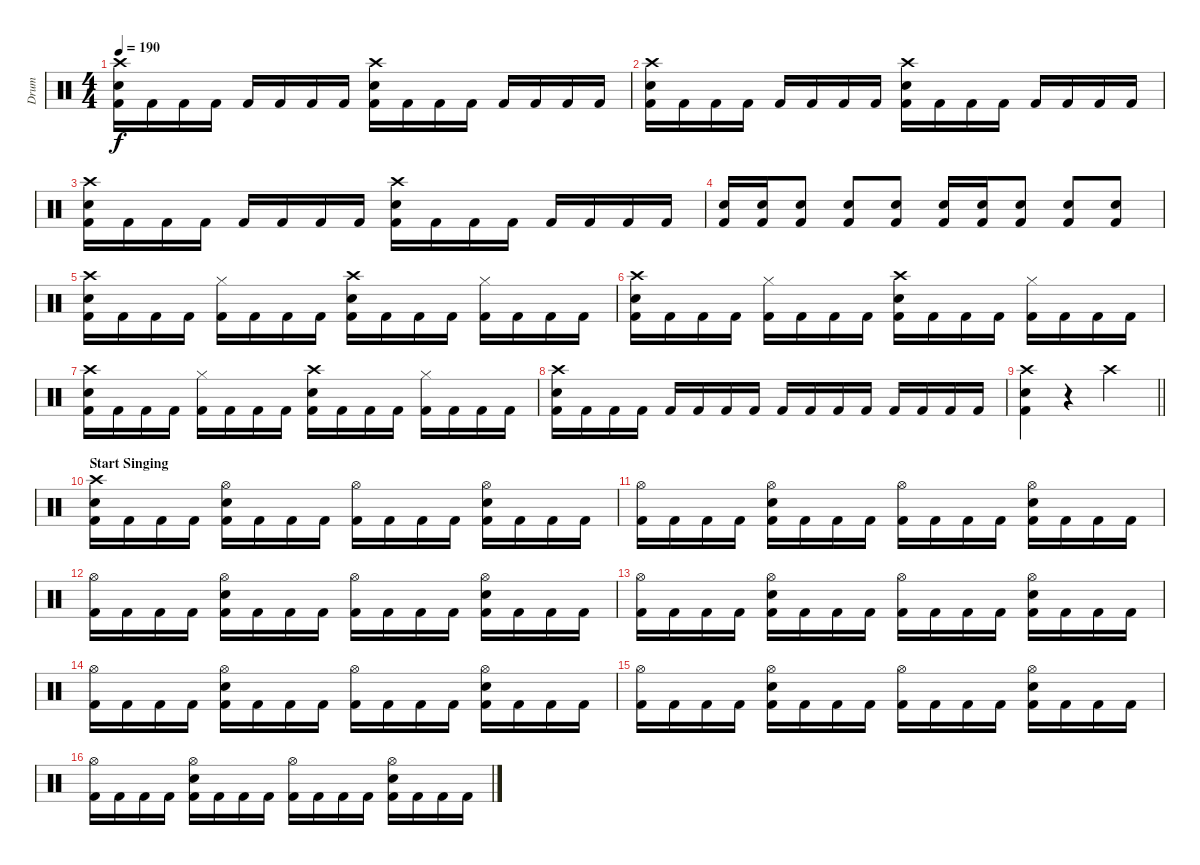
\track ("Drum" "Drum") {instrument percussion}
\staff {score}
\articulation defaults
\ts (4 4)
\tempo 190
\clef neutral
\ks c
("Crash high (hit)" "Snare (hit) 2" "Kick (hit) 2").16{dy f} "Kick (hit) 2".16 "Kick (hit) 2".16 "Kick (hit) 2".16 "Kick (hit) 2".16 "Kick (hit) 2".16 "Kick (hit) 2".16 "Kick (hit) 2".16 ("Crash high (hit)" "Snare (hit) 2" "Kick (hit) 2").16 "Kick (hit) 2".16 "Kick (hit) 2".16 "Kick (hit) 2".16 "Kick (hit) 2".16 "Kick (hit) 2".16 "Kick (hit) 2".16 "Kick (hit) 2".16 |
("Crash high (hit)" "Snare (hit) 2" "Kick (hit) 2").16 "Kick (hit) 2".16 "Kick (hit) 2".16 "Kick (hit) 2".16 "Kick (hit) 2".16 "Kick (hit) 2".16 "Kick (hit) 2".16 "Kick (hit) 2".16 ("Crash high (hit)" "Snare (hit) 2" "Kick (hit) 2").16 "Kick (hit) 2".16 "Kick (hit) 2".16 "Kick (hit) 2".16 "Kick (hit) 2".16 "Kick (hit) 2".16 "Kick (hit) 2".16 "Kick (hit) 2".16 |
("Crash high (hit)" "Snare (hit) 2" "Kick (hit) 2").16 "Kick (hit) 2".16 "Kick (hit) 2".16 "Kick (hit) 2".16 "Kick (hit) 2".16 "Kick (hit) 2".16 "Kick (hit) 2".16 "Kick (hit) 2".16 ("Crash high (hit)" "Snare (hit) 2" "Kick (hit) 2").16 "Kick (hit) 2".16 "Kick (hit) 2".16 "Kick (hit) 2".16 "Kick (hit) 2".16 "Kick (hit) 2".16 "Kick (hit) 2".16 "Kick (hit) 2".16 |
("Snare (hit) 2" "Kick (hit) 2").16 ("Snare (hit) 2" "Kick (hit) 2").16 ("Snare (hit) 2" "Kick (hit) 2").8 ("Snare (hit) 2" "Kick (hit) 2").8 ("Snare (hit) 2" "Kick (hit) 2").8 ("Snare (hit) 2" "Kick (hit) 2").16 ("Snare (hit) 2" "Kick (hit) 2").16 ("Snare (hit) 2" "Kick (hit) 2").8 ("Snare (hit) 2" "Kick (hit) 2").8 ("Snare (hit) 2" "Kick (hit) 2").8 |
("Crash high (hit)" "Snare (hit) 2" "Kick (hit) 2").16 "Kick (hit) 2".16 "Kick (hit) 2".16 "Kick (hit) 2".16 ("Hi-Hat (closed)" "Kick (hit) 2").16 "Kick (hit) 2".16 "Kick (hit) 2".16 "Kick (hit) 2".16 ("Crash high (hit)" "Snare (hit) 2" "Kick (hit) 2").16 "Kick (hit) 2".16 "Kick (hit) 2".16 "Kick (hit) 2".16 ("Hi-Hat (closed)" "Kick (hit) 2").16 "Kick (hit) 2".16 "Kick (hit) 2".16 "Kick (hit) 2".16 |
("Crash high (hit)" "Snare (hit) 2" "Kick (hit) 2").16 "Kick (hit) 2".16 "Kick (hit) 2".16 "Kick (hit) 2".16 ("Hi-Hat (closed)" "Kick (hit) 2").16 "Kick (hit) 2".16 "Kick (hit) 2".16 "Kick (hit) 2".16 ("Crash high (hit)" "Snare (hit) 2" "Kick (hit) 2").16 "Kick (hit) 2".16 "Kick (hit) 2".16 "Kick (hit) 2".16 ("Hi-Hat (closed)" "Kick (hit) 2").16 "Kick (hit) 2".16 "Kick (hit) 2".16 "Kick (hit) 2".16 |
("Crash high (hit)" "Snare (hit) 2" "Kick (hit) 2").16 "Kick (hit) 2".16 "Kick (hit) 2".16 "Kick (hit) 2".16 ("Hi-Hat (closed)" "Kick (hit) 2").16 "Kick (hit) 2".16 "Kick (hit) 2".16 "Kick (hit) 2".16 ("Crash high (hit)" "Snare (hit) 2" "Kick (hit) 2").16 "Kick (hit) 2".16 "Kick (hit) 2".16 "Kick (hit) 2".16 ("Hi-Hat (closed)" "Kick (hit) 2").16 "Kick (hit) 2".16 "Kick (hit) 2".16 "Kick (hit) 2".16 |
("Crash high (hit)" "Snare (hit) 2" "Kick (hit) 2").16 "Kick (hit) 2".16 "Kick (hit) 2".16 "Kick (hit) 2".16 "Kick (hit) 2".16 "Kick (hit) 2".16 "Kick (hit) 2".16 "Kick (hit) 2".16 "Kick (hit) 2".16 "Kick (hit) 2".16 "Kick (hit) 2".16 "Kick (hit) 2".16 "Kick (hit) 2".16 "Kick (hit) 2".16 "Kick (hit) 2".16 "Kick (hit) 2".16 |
\barLineRight lightlight
("Crash high (hit)" "Snare (hit) 2" "Kick (hit) 2").4 r.4{volume 0} "Crash high (hit)".2{volume 13} |
\section ("" "Start Singing")
("Crash high (hit)" "Snare (hit) 2" "Kick (hit) 2").16 "Kick (hit) 2".16 "Kick (hit) 2".16 "Kick (hit) 2".16 ("Hi-Hat (open)" "Snare (hit) 2" "Kick (hit) 2").16 "Kick (hit) 2".16 "Kick (hit) 2".16 "Kick (hit) 2".16 ("Hi-Hat (open)" "Kick (hit) 2").16 "Kick (hit) 2".16 "Kick (hit) 2".16 "Kick (hit) 2".16 ("Hi-Hat (open)" "Snare (hit) 2" "Kick (hit) 2").16 "Kick (hit) 2".16 "Kick (hit) 2".16 "Kick (hit) 2".16 |
("Hi-Hat (open)" "Kick (hit) 2").16 "Kick (hit) 2".16 "Kick (hit) 2".16 "Kick (hit) 2".16 ("Hi-Hat (open)" "Snare (hit) 2" "Kick (hit) 2").16 "Kick (hit) 2".16 "Kick (hit) 2".16 "Kick (hit) 2".16 ("Hi-Hat (open)" "Kick (hit) 2").16 "Kick (hit) 2".16 "Kick (hit) 2".16 "Kick (hit) 2".16 ("Hi-Hat (open)" "Snare (hit) 2" "Kick (hit) 2").16 "Kick (hit) 2".16 "Kick (hit) 2".16 "Kick (hit) 2".16 |
("Hi-Hat (open)" "Kick (hit) 2").16 "Kick (hit) 2".16 "Kick (hit) 2".16 "Kick (hit) 2".16 ("Hi-Hat (open)" "Snare (hit) 2" "Kick (hit) 2").16 "Kick (hit) 2".16 "Kick (hit) 2".16 "Kick (hit) 2".16 ("Hi-Hat (open)" "Kick (hit) 2").16 "Kick (hit) 2".16 "Kick (hit) 2".16 "Kick (hit) 2".16 ("Hi-Hat (open)" "Snare (hit) 2" "Kick (hit) 2").16 "Kick (hit) 2".16 "Kick (hit) 2".16 "Kick (hit) 2".16 |
("Hi-Hat (open)" "Kick (hit) 2").16 "Kick (hit) 2".16 "Kick (hit) 2".16 "Kick (hit) 2".16 ("Hi-Hat (open)" "Snare (hit) 2" "Kick (hit) 2").16 "Kick (hit) 2".16 "Kick (hit) 2".16 "Kick (hit) 2".16 ("Hi-Hat (open)" "Kick (hit) 2").16 "Kick (hit) 2".16 "Kick (hit) 2".16 "Kick (hit) 2".16 ("Hi-Hat (open)" "Snare (hit) 2" "Kick (hit) 2").16 "Kick (hit) 2".16 "Kick (hit) 2".16 "Kick (hit) 2".16 |
("Hi-Hat (open)" "Kick (hit) 2").16 "Kick (hit) 2".16 "Kick (hit) 2".16 "Kick (hit) 2".16 ("Hi-Hat (open)" "Snare (hit) 2" "Kick (hit) 2").16 "Kick (hit) 2".16 "Kick (hit) 2".16 "Kick (hit) 2".16 ("Hi-Hat (open)" "Kick (hit) 2").16 "Kick (hit) 2".16 "Kick (hit) 2".16 "Kick (hit) 2".16 ("Hi-Hat (open)" "Snare (hit) 2" "Kick (hit) 2").16 "Kick (hit) 2".16 "Kick (hit) 2".16 "Kick (hit) 2".16 |
("Hi-Hat (open)" "Kick (hit) 2").16 "Kick (hit) 2".16 "Kick (hit) 2".16 "Kick (hit) 2".16 ("Hi-Hat (open)" "Snare (hit) 2" "Kick (hit) 2").16 "Kick (hit) 2".16 "Kick (hit) 2".16 "Kick (hit) 2".16 ("Hi-Hat (open)" "Kick (hit) 2").16 "Kick (hit) 2".16 "Kick (hit) 2".16 "Kick (hit) 2".16 ("Hi-Hat (open)" "Snare (hit) 2" "Kick (hit) 2").16 "Kick (hit) 2".16 "Kick (hit) 2".16 "Kick (hit) 2".16 |
("Hi-Hat (open)" "Kick (hit) 2").16 "Kick (hit) 2".16 "Kick (hit) 2".16 "Kick (hit) 2".16 ("Hi-Hat (open)" "Snare (hit) 2" "Kick (hit) 2").16 "Kick (hit) 2".16 "Kick (hit) 2".16 "Kick (hit) 2".16 ("Hi-Hat (open)" "Kick (hit) 2").16 "Kick (hit) 2".16 "Kick (hit) 2".16 "Kick (hit) 2".16 ("Hi-Hat (open)" "Snare (hit) 2" "Kick (hit) 2").16 "Kick (hit) 2".16 "Kick (hit) 2".16 "Kick (hit) 2".16
